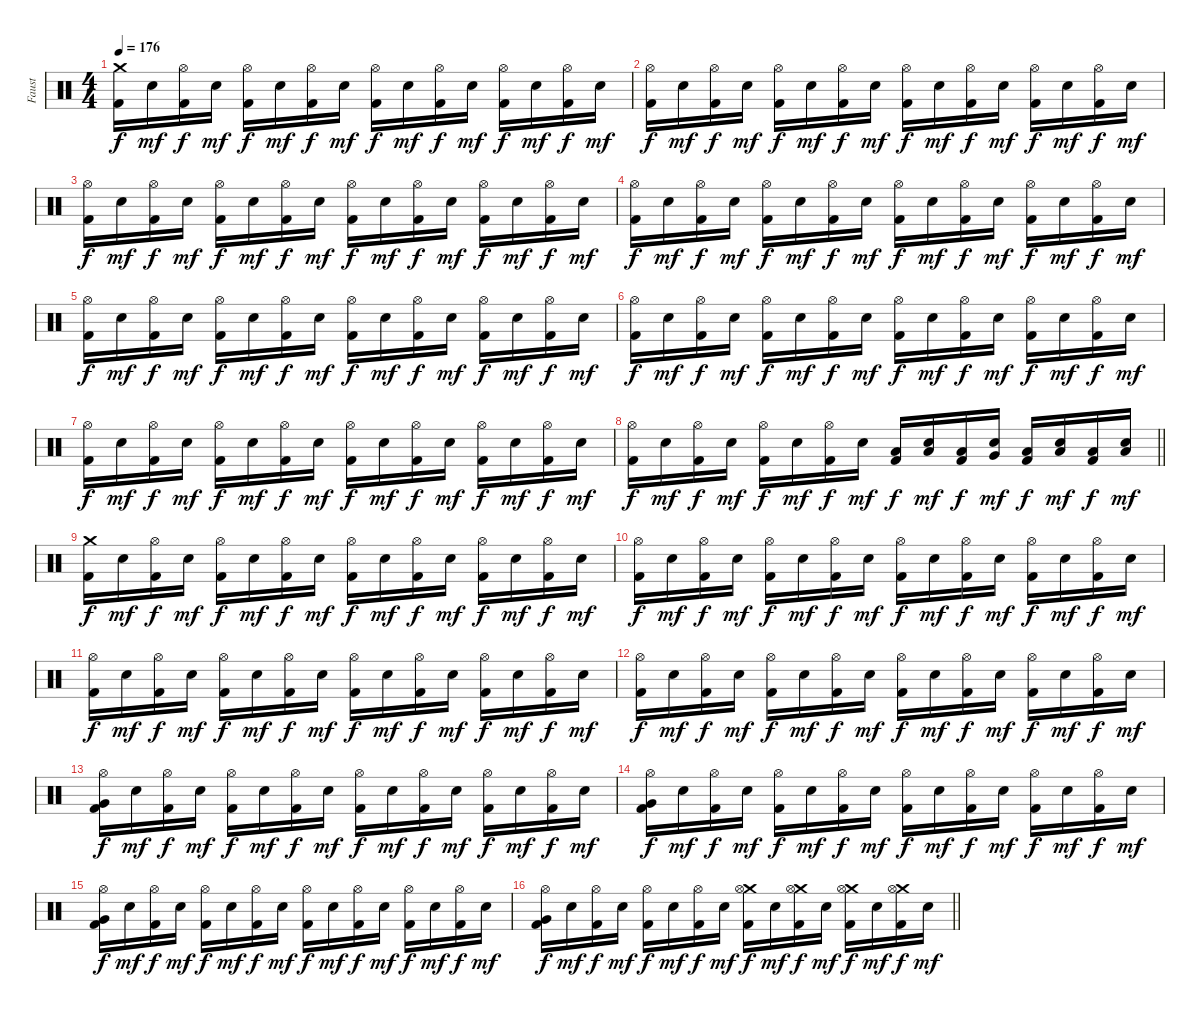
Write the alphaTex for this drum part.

\track ("Faust" "Faust") {instrument percussion}
\staff {score}
\articulation defaults
\ts (4 4)
\section ("" "")
\tempo 176
\clef neutral
\ks c
("Crash medium (hit)" "Kick (hit) 2").16{dy f} "Electric Snare (hit)".16{dy mf} ("Hi-Hat (open)" "Kick (hit) 2").16{dy f} "Electric Snare (hit)".16{dy mf} ("Hi-Hat (open)" "Kick (hit) 2").16{dy f} "Electric Snare (hit)".16{dy mf} ("Hi-Hat (open)" "Kick (hit) 2").16{dy f} "Electric Snare (hit)".16{dy mf} ("Hi-Hat (open)" "Kick (hit) 2").16{dy f} "Electric Snare (hit)".16{dy mf} ("Hi-Hat (open)" "Kick (hit) 2").16{dy f} "Electric Snare (hit)".16{dy mf} ("Hi-Hat (open)" "Kick (hit) 2").16{dy f} "Electric Snare (hit)".16{dy mf} ("Hi-Hat (open)" "Kick (hit) 2").16{dy f} "Electric Snare (hit)".16{dy mf} |
("Hi-Hat (open)" "Kick (hit) 2").16{dy f} "Electric Snare (hit)".16{dy mf} ("Hi-Hat (open)" "Kick (hit) 2").16{dy f} "Electric Snare (hit)".16{dy mf} ("Hi-Hat (open)" "Kick (hit) 2").16{dy f} "Electric Snare (hit)".16{dy mf} ("Hi-Hat (open)" "Kick (hit) 2").16{dy f} "Electric Snare (hit)".16{dy mf} ("Hi-Hat (open)" "Kick (hit) 2").16{dy f} "Electric Snare (hit)".16{dy mf} ("Hi-Hat (open)" "Kick (hit) 2").16{dy f} "Electric Snare (hit)".16{dy mf} ("Hi-Hat (open)" "Kick (hit) 2").16{dy f} "Electric Snare (hit)".16{dy mf} ("Hi-Hat (open)" "Kick (hit) 2").16{dy f} "Electric Snare (hit)".16{dy mf} |
("Hi-Hat (open)" "Kick (hit) 2").16{dy f} "Electric Snare (hit)".16{dy mf} ("Hi-Hat (open)" "Kick (hit) 2").16{dy f} "Electric Snare (hit)".16{dy mf} ("Hi-Hat (open)" "Kick (hit) 2").16{dy f} "Electric Snare (hit)".16{dy mf} ("Hi-Hat (open)" "Kick (hit) 2").16{dy f} "Electric Snare (hit)".16{dy mf} ("Hi-Hat (open)" "Kick (hit) 2").16{dy f} "Electric Snare (hit)".16{dy mf} ("Hi-Hat (open)" "Kick (hit) 2").16{dy f} "Electric Snare (hit)".16{dy mf} ("Hi-Hat (open)" "Kick (hit) 2").16{dy f} "Electric Snare (hit)".16{dy mf} ("Hi-Hat (open)" "Kick (hit) 2").16{dy f} "Electric Snare (hit)".16{dy mf} |
("Hi-Hat (open)" "Kick (hit) 2").16{dy f} "Electric Snare (hit)".16{dy mf} ("Hi-Hat (open)" "Kick (hit) 2").16{dy f} "Electric Snare (hit)".16{dy mf} ("Hi-Hat (open)" "Kick (hit) 2").16{dy f} "Electric Snare (hit)".16{dy mf} ("Hi-Hat (open)" "Kick (hit) 2").16{dy f} "Electric Snare (hit)".16{dy mf} ("Hi-Hat (open)" "Kick (hit) 2").16{dy f} "Electric Snare (hit)".16{dy mf} ("Hi-Hat (open)" "Kick (hit) 2").16{dy f} "Electric Snare (hit)".16{dy mf} ("Hi-Hat (open)" "Kick (hit) 2").16{dy f} "Electric Snare (hit)".16{dy mf} ("Hi-Hat (open)" "Kick (hit) 2").16{dy f} "Electric Snare (hit)".16{dy mf} |
("Hi-Hat (open)" "Kick (hit) 2").16{dy f} "Electric Snare (hit)".16{dy mf} ("Hi-Hat (open)" "Kick (hit) 2").16{dy f} "Electric Snare (hit)".16{dy mf} ("Hi-Hat (open)" "Kick (hit) 2").16{dy f} "Electric Snare (hit)".16{dy mf} ("Hi-Hat (open)" "Kick (hit) 2").16{dy f} "Electric Snare (hit)".16{dy mf} ("Hi-Hat (open)" "Kick (hit) 2").16{dy f} "Electric Snare (hit)".16{dy mf} ("Hi-Hat (open)" "Kick (hit) 2").16{dy f} "Electric Snare (hit)".16{dy mf} ("Hi-Hat (open)" "Kick (hit) 2").16{dy f} "Electric Snare (hit)".16{dy mf} ("Hi-Hat (open)" "Kick (hit) 2").16{dy f} "Electric Snare (hit)".16{dy mf} |
("Hi-Hat (open)" "Kick (hit) 2").16{dy f} "Electric Snare (hit)".16{dy mf} ("Hi-Hat (open)" "Kick (hit) 2").16{dy f} "Electric Snare (hit)".16{dy mf} ("Hi-Hat (open)" "Kick (hit) 2").16{dy f} "Electric Snare (hit)".16{dy mf} ("Hi-Hat (open)" "Kick (hit) 2").16{dy f} "Electric Snare (hit)".16{dy mf} ("Hi-Hat (open)" "Kick (hit) 2").16{dy f} "Electric Snare (hit)".16{dy mf} ("Hi-Hat (open)" "Kick (hit) 2").16{dy f} "Electric Snare (hit)".16{dy mf} ("Hi-Hat (open)" "Kick (hit) 2").16{dy f} "Electric Snare (hit)".16{dy mf} ("Hi-Hat (open)" "Kick (hit) 2").16{dy f} "Electric Snare (hit)".16{dy mf} |
("Hi-Hat (open)" "Kick (hit) 2").16{dy f} "Electric Snare (hit)".16{dy mf} ("Hi-Hat (open)" "Kick (hit) 2").16{dy f} "Electric Snare (hit)".16{dy mf} ("Hi-Hat (open)" "Kick (hit) 2").16{dy f} "Electric Snare (hit)".16{dy mf} ("Hi-Hat (open)" "Kick (hit) 2").16{dy f} "Electric Snare (hit)".16{dy mf} ("Hi-Hat (open)" "Kick (hit) 2").16{dy f} "Electric Snare (hit)".16{dy mf} ("Hi-Hat (open)" "Kick (hit) 2").16{dy f} "Electric Snare (hit)".16{dy mf} ("Hi-Hat (open)" "Kick (hit) 2").16{dy f} "Electric Snare (hit)".16{dy mf} ("Hi-Hat (open)" "Kick (hit) 2").16{dy f} "Electric Snare (hit)".16{dy mf} |
\barLineRight lightlight
("Hi-Hat (open)" "Kick (hit) 2").16{dy f} "Electric Snare (hit)".16{dy mf} ("Hi-Hat (open)" "Kick (hit) 2").16{dy f} "Electric Snare (hit)".16{dy mf} ("Hi-Hat (open)" "Kick (hit) 2").16{dy f} "Electric Snare (hit)".16{dy mf} ("Hi-Hat (open)" "Kick (hit) 2").16{dy f} "Electric Snare (hit)".16{dy mf} ("Low Tom (hit)" "Kick (hit) 2").16{dy f} ("Low Tom (hit)" "Electric Snare (hit)").16{dy mf} ("Low Tom (hit)" "Kick (hit) 2").16{dy f} ("Very Low Tom (hit)" "Electric Snare (hit)").16{dy mf} ("Low Floor Tom (hit)" "Kick (hit) 2").16{dy f} ("Low Floor Tom (hit)" "Electric Snare (hit)").16{dy mf} ("Low Floor Tom (hit)" "Kick (hit) 2").16{dy f} ("Low Floor Tom (hit)" "Electric Snare (hit)").16{dy mf} |
("Crash medium (hit)" "Kick (hit) 2").16{dy f} "Electric Snare (hit)".16{dy mf} ("Hi-Hat (open)" "Kick (hit) 2").16{dy f} "Electric Snare (hit)".16{dy mf} ("Hi-Hat (open)" "Kick (hit) 2").16{dy f} "Electric Snare (hit)".16{dy mf} ("Hi-Hat (open)" "Kick (hit) 2").16{dy f} "Electric Snare (hit)".16{dy mf} ("Hi-Hat (open)" "Kick (hit) 2").16{dy f} "Electric Snare (hit)".16{dy mf} ("Hi-Hat (open)" "Kick (hit) 2").16{dy f} "Electric Snare (hit)".16{dy mf} ("Hi-Hat (open)" "Kick (hit) 2").16{dy f} "Electric Snare (hit)".16{dy mf} ("Hi-Hat (open)" "Kick (hit) 2").16{dy f} "Electric Snare (hit)".16{dy mf} |
("Hi-Hat (open)" "Kick (hit) 2").16{dy f} "Electric Snare (hit)".16{dy mf} ("Hi-Hat (open)" "Kick (hit) 2").16{dy f} "Electric Snare (hit)".16{dy mf} ("Hi-Hat (open)" "Kick (hit) 2").16{dy f} "Electric Snare (hit)".16{dy mf} ("Hi-Hat (open)" "Kick (hit) 2").16{dy f} "Electric Snare (hit)".16{dy mf} ("Hi-Hat (open)" "Kick (hit) 2").16{dy f} "Electric Snare (hit)".16{dy mf} ("Hi-Hat (open)" "Kick (hit) 2").16{dy f} "Electric Snare (hit)".16{dy mf} ("Hi-Hat (open)" "Kick (hit) 2").16{dy f} "Electric Snare (hit)".16{dy mf} ("Hi-Hat (open)" "Kick (hit) 2").16{dy f} "Electric Snare (hit)".16{dy mf} |
("Hi-Hat (open)" "Kick (hit) 2").16{dy f} "Electric Snare (hit)".16{dy mf} ("Hi-Hat (open)" "Kick (hit) 2").16{dy f} "Electric Snare (hit)".16{dy mf} ("Hi-Hat (open)" "Kick (hit) 2").16{dy f} "Electric Snare (hit)".16{dy mf} ("Hi-Hat (open)" "Kick (hit) 2").16{dy f} "Electric Snare (hit)".16{dy mf} ("Hi-Hat (open)" "Kick (hit) 2").16{dy f} "Electric Snare (hit)".16{dy mf} ("Hi-Hat (open)" "Kick (hit) 2").16{dy f} "Electric Snare (hit)".16{dy mf} ("Hi-Hat (open)" "Kick (hit) 2").16{dy f} "Electric Snare (hit)".16{dy mf} ("Hi-Hat (open)" "Kick (hit) 2").16{dy f} "Electric Snare (hit)".16{dy mf} |
("Hi-Hat (open)" "Kick (hit) 2").16{dy f} "Electric Snare (hit)".16{dy mf} ("Hi-Hat (open)" "Kick (hit) 2").16{dy f} "Electric Snare (hit)".16{dy mf} ("Hi-Hat (open)" "Kick (hit) 2").16{dy f} "Electric Snare (hit)".16{dy mf} ("Hi-Hat (open)" "Kick (hit) 2").16{dy f} "Electric Snare (hit)".16{dy mf} ("Hi-Hat (open)" "Kick (hit) 2").16{dy f} "Electric Snare (hit)".16{dy mf} ("Hi-Hat (open)" "Kick (hit) 2").16{dy f} "Electric Snare (hit)".16{dy mf} ("Hi-Hat (open)" "Kick (hit) 2").16{dy f} "Electric Snare (hit)".16{dy mf} ("Hi-Hat (open)" "Kick (hit) 2").16{dy f} "Electric Snare (hit)".16{dy mf} |
("Very Low Tom (hit)" "Hi-Hat (open)" "Kick (hit) 2").16{dy f} "Electric Snare (hit)".16{dy mf} ("Hi-Hat (open)" "Kick (hit) 2").16{dy f} "Electric Snare (hit)".16{dy mf} ("Hi-Hat (open)" "Kick (hit) 2").16{dy f} "Electric Snare (hit)".16{dy mf} ("Hi-Hat (open)" "Kick (hit) 2").16{dy f} "Electric Snare (hit)".16{dy mf} ("Hi-Hat (open)" "Kick (hit) 2").16{dy f} "Electric Snare (hit)".16{dy mf} ("Hi-Hat (open)" "Kick (hit) 2").16{dy f} "Electric Snare (hit)".16{dy mf} ("Hi-Hat (open)" "Kick (hit) 2").16{dy f} "Electric Snare (hit)".16{dy mf} ("Hi-Hat (open)" "Kick (hit) 2").16{dy f} "Electric Snare (hit)".16{dy mf} |
("Very Low Tom (hit)" "Hi-Hat (open)" "Kick (hit) 2").16{dy f} "Electric Snare (hit)".16{dy mf} ("Hi-Hat (open)" "Kick (hit) 2").16{dy f} "Electric Snare (hit)".16{dy mf} ("Hi-Hat (open)" "Kick (hit) 2").16{dy f} "Electric Snare (hit)".16{dy mf} ("Hi-Hat (open)" "Kick (hit) 2").16{dy f} "Electric Snare (hit)".16{dy mf} ("Hi-Hat (open)" "Kick (hit) 2").16{dy f} "Electric Snare (hit)".16{dy mf} ("Hi-Hat (open)" "Kick (hit) 2").16{dy f} "Electric Snare (hit)".16{dy mf} ("Hi-Hat (open)" "Kick (hit) 2").16{dy f} "Electric Snare (hit)".16{dy mf} ("Hi-Hat (open)" "Kick (hit) 2").16{dy f} "Electric Snare (hit)".16{dy mf} |
("Very Low Tom (hit)" "Hi-Hat (open)" "Kick (hit) 2").16{dy f} "Electric Snare (hit)".16{dy mf} ("Hi-Hat (open)" "Kick (hit) 2").16{dy f} "Electric Snare (hit)".16{dy mf} ("Hi-Hat (open)" "Kick (hit) 2").16{dy f} "Electric Snare (hit)".16{dy mf} ("Hi-Hat (open)" "Kick (hit) 2").16{dy f} "Electric Snare (hit)".16{dy mf} ("Hi-Hat (open)" "Kick (hit) 2").16{dy f} "Electric Snare (hit)".16{dy mf} ("Hi-Hat (open)" "Kick (hit) 2").16{dy f} "Electric Snare (hit)".16{dy mf} ("Hi-Hat (open)" "Kick (hit) 2").16{dy f} "Electric Snare (hit)".16{dy mf} ("Hi-Hat (open)" "Kick (hit) 2").16{dy f} "Electric Snare (hit)".16{dy mf} |
\barLineRight lightlight
("Very Low Tom (hit)" "Hi-Hat (open)" "Kick (hit) 2").16{dy f} "Electric Snare (hit)".16{dy mf} ("Hi-Hat (open)" "Kick (hit) 2").16{dy f} "Electric Snare (hit)".16{dy mf} ("Hi-Hat (open)" "Kick (hit) 2").16{dy f} "Electric Snare (hit)".16{dy mf} ("Hi-Hat (open)" "Kick (hit) 2").16{dy f} "Electric Snare (hit)".16{dy mf} ("Crash medium (hit)" "Hi-Hat (open)" "Kick (hit) 2").16{dy f} "Electric Snare (hit)".16{dy mf} ("Crash medium (hit)" "Hi-Hat (open)" "Kick (hit) 2").16{dy f} "Electric Snare (hit)".16{dy mf} ("Crash medium (hit)" "Hi-Hat (open)" "Kick (hit) 2").16{dy f} "Electric Snare (hit)".16{dy mf} ("Crash medium (hit)" "Hi-Hat (open)" "Kick (hit) 2").16{dy f} "Electric Snare (hit)".16{dy mf}
